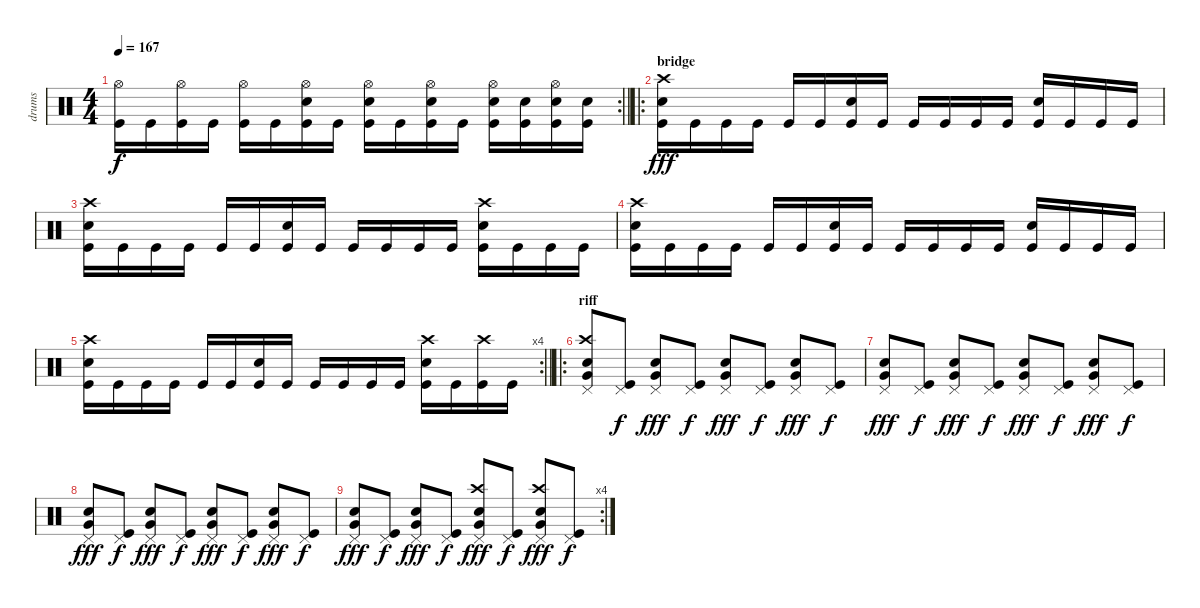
\track ("drums" "drums") {instrument percussion}
\staff {score}
\articulation defaults
\rc 2
\ts (4 4)
\tempo 167
\clef neutral
\barLineRight lightlight
\ks c
("Hi-Hat (open)" "Kick (hit)").16{dy f} "Kick (hit)".16 ("Hi-Hat (open)" "Kick (hit)").16 "Kick (hit)".16 ("Hi-Hat (open)" "Kick (hit)").16 "Kick (hit)".16 ("Snare (hit) 2" "Hi-Hat (open)" "Kick (hit)").16 "Kick (hit)".16 ("Snare (hit) 2" "Hi-Hat (open)" "Kick (hit)").16 "Kick (hit)".16 ("Snare (hit) 2" "Hi-Hat (open)" "Kick (hit)").16 "Kick (hit)".16 ("Snare (hit) 2" "Hi-Hat (open)" "Kick (hit)").16 ("Snare (hit) 2" "Kick (hit)").16 ("Snare (hit) 2" "Hi-Hat (open)" "Kick (hit)").16 ("Snare (hit) 2" "Kick (hit)").16 |
\ro
\section ("" "bridge")
("Snare (hit) 2" "Crash high (hit)" "Kick (hit)").16{dy fff} "Kick (hit)".16 "Kick (hit)".16 "Kick (hit)".16 "Kick (hit)".16 "Kick (hit)".16 ("Snare (hit) 2" "Kick (hit)").16 "Kick (hit)".16 "Kick (hit)".16 "Kick (hit)".16 "Kick (hit)".16 "Kick (hit)".16 ("Snare (hit) 2" "Kick (hit)").16 "Kick (hit)".16 "Kick (hit)".16 "Kick (hit)".16 |
("Snare (hit) 2" "Crash high (hit)" "Kick (hit)").16 "Kick (hit)".16 "Kick (hit)".16 "Kick (hit)".16 "Kick (hit)".16 "Kick (hit)".16 ("Snare (hit) 2" "Kick (hit)").16 "Kick (hit)".16 "Kick (hit)".16 "Kick (hit)".16 "Kick (hit)".16 "Kick (hit)".16 ("Snare (hit) 2" "Crash high (hit)" "Kick (hit)").16 "Kick (hit)".16 "Kick (hit)".16 "Kick (hit)".16 |
("Snare (hit) 2" "Crash high (hit)" "Kick (hit)").16 "Kick (hit)".16 "Kick (hit)".16 "Kick (hit)".16 "Kick (hit)".16 "Kick (hit)".16 ("Snare (hit) 2" "Kick (hit)").16 "Kick (hit)".16 "Kick (hit)".16 "Kick (hit)".16 "Kick (hit)".16 "Kick (hit)".16 ("Snare (hit) 2" "Kick (hit)").16 "Kick (hit)".16 "Kick (hit)".16 "Kick (hit)".16 |
\rc 4
\barLineRight lightlight
("Snare (hit) 2" "Crash high (hit)" "Kick (hit)").16 "Kick (hit)".16 "Kick (hit)".16 "Kick (hit)".16 "Kick (hit)".16 "Kick (hit)".16 ("Snare (hit) 2" "Kick (hit)").16 "Kick (hit)".16 "Kick (hit)".16 "Kick (hit)".16 "Kick (hit)".16 "Kick (hit)".16 ("Snare (hit) 2" "Crash high (hit)" "Kick (hit)").16 "Kick (hit)".16 ("Crash high (hit)" "Kick (hit)").16 "Kick (hit)".16 |
\ro
\section ("" "riff")
("Snare (hit) 2" "Very Low Tom (hit)" "Pedal Hi-Hat (hit)" "Crash high (hit)").8 ("Pedal Hi-Hat (hit)" "Kick (hit)").8{dy f} ("Snare (hit) 2" "Very Low Tom (hit)" "Pedal Hi-Hat (hit)").8{dy fff} ("Pedal Hi-Hat (hit)" "Kick (hit)").8{dy f} ("Snare (hit) 2" "Very Low Tom (hit)" "Pedal Hi-Hat (hit)").8{dy fff} ("Pedal Hi-Hat (hit)" "Kick (hit)").8{dy f} ("Snare (hit) 2" "Very Low Tom (hit)" "Pedal Hi-Hat (hit)").8{dy fff} ("Pedal Hi-Hat (hit)" "Kick (hit)").8{dy f} |
("Snare (hit) 2" "Very Low Tom (hit)" "Pedal Hi-Hat (hit)").8{dy fff} ("Pedal Hi-Hat (hit)" "Kick (hit)").8{dy f} ("Snare (hit) 2" "Very Low Tom (hit)" "Pedal Hi-Hat (hit)").8{dy fff} ("Pedal Hi-Hat (hit)" "Kick (hit)").8{dy f} ("Snare (hit) 2" "Very Low Tom (hit)" "Pedal Hi-Hat (hit)").8{dy fff} ("Pedal Hi-Hat (hit)" "Kick (hit)").8{dy f} ("Snare (hit) 2" "Very Low Tom (hit)" "Pedal Hi-Hat (hit)").8{dy fff} ("Pedal Hi-Hat (hit)" "Kick (hit)").8{dy f} |
("Snare (hit) 2" "Very Low Tom (hit)" "Pedal Hi-Hat (hit)").8{dy fff} ("Pedal Hi-Hat (hit)" "Kick (hit)").8{dy f} ("Snare (hit) 2" "Very Low Tom (hit)" "Pedal Hi-Hat (hit)").8{dy fff} ("Pedal Hi-Hat (hit)" "Kick (hit)").8{dy f} ("Snare (hit) 2" "Very Low Tom (hit)" "Pedal Hi-Hat (hit)").8{dy fff} ("Pedal Hi-Hat (hit)" "Kick (hit)").8{dy f} ("Snare (hit) 2" "Very Low Tom (hit)" "Pedal Hi-Hat (hit)").8{dy fff} ("Pedal Hi-Hat (hit)" "Kick (hit)").8{dy f} |
\rc 4
("Snare (hit) 2" "Very Low Tom (hit)" "Pedal Hi-Hat (hit)").8{dy fff} ("Pedal Hi-Hat (hit)" "Kick (hit)").8{dy f} ("Snare (hit) 2" "Very Low Tom (hit)" "Pedal Hi-Hat (hit)").8{dy fff} ("Pedal Hi-Hat (hit)" "Kick (hit)").8{dy f} ("Snare (hit) 2" "Very Low Tom (hit)" "Pedal Hi-Hat (hit)" "Crash high (hit)").8{dy fff} ("Pedal Hi-Hat (hit)" "Kick (hit)").8{dy f} ("Snare (hit) 2" "Very Low Tom (hit)" "Pedal Hi-Hat (hit)" "Crash high (hit)").8{dy fff} ("Pedal Hi-Hat (hit)" "Kick (hit)").8{dy f}
